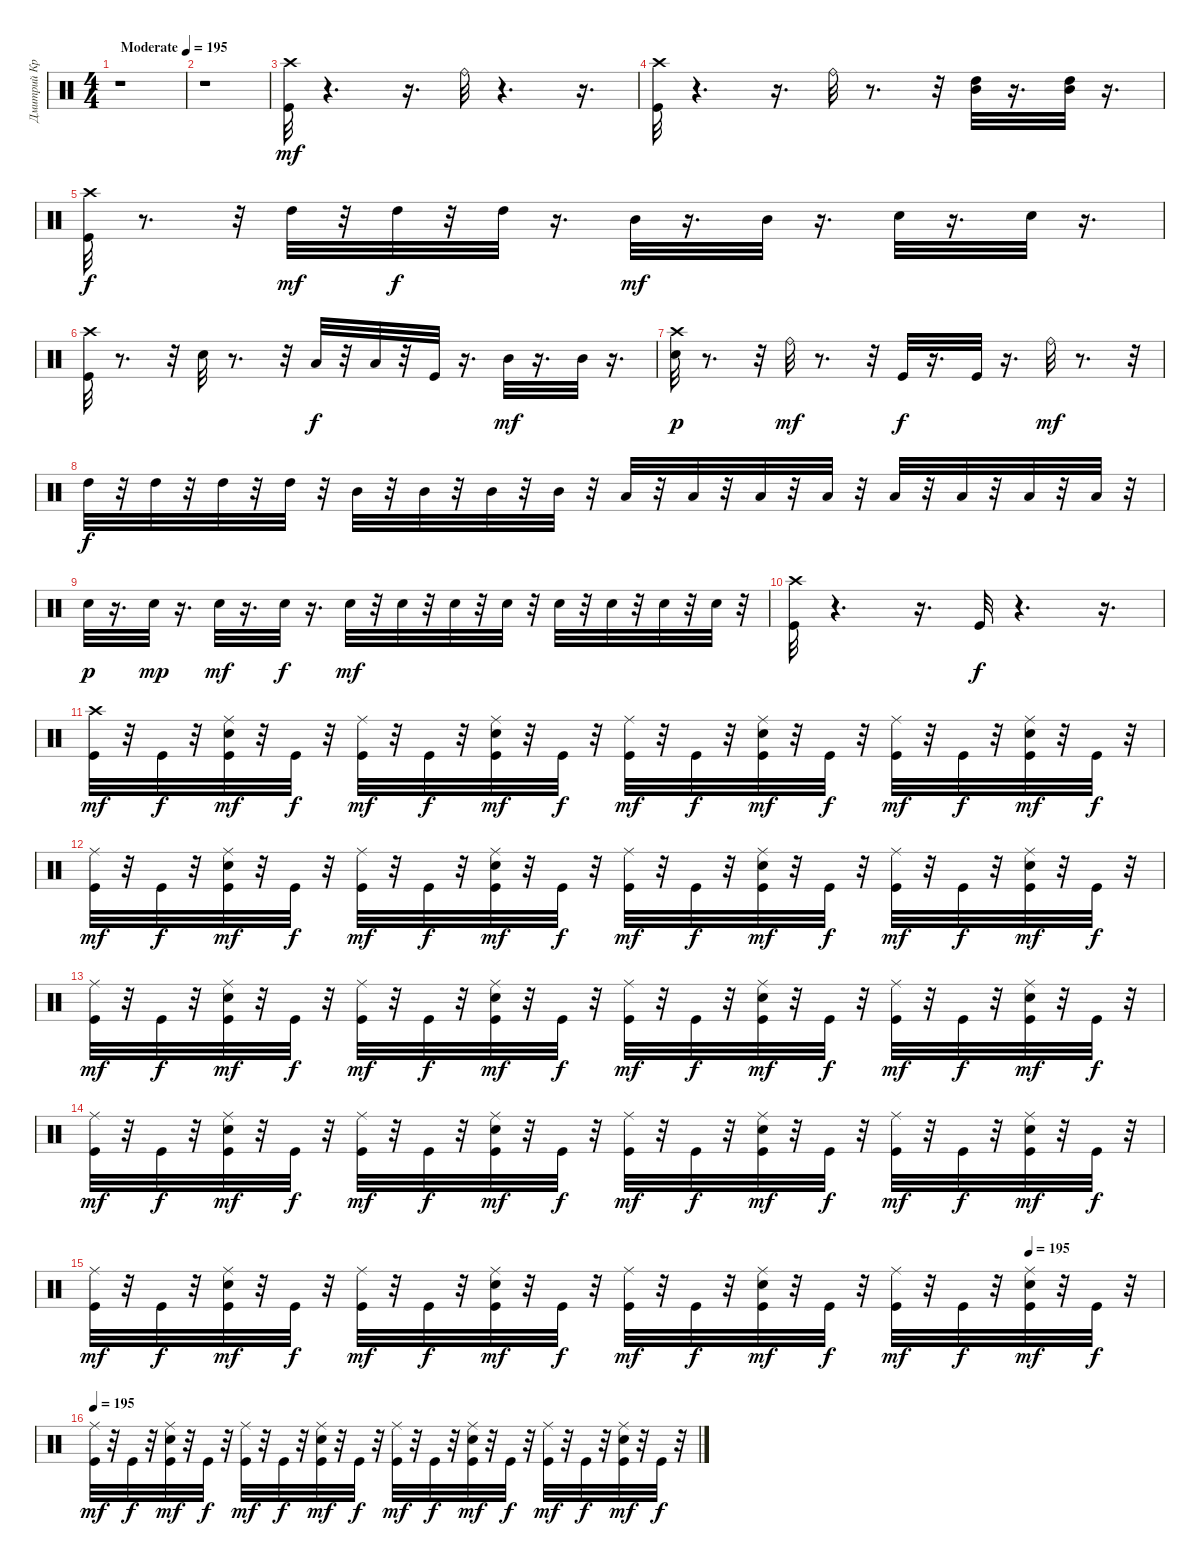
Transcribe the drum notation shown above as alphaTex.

\track ("Дмитрий Кривенков" "Дмитрий Кр") {instrument percussion}
\staff {score}
\articulation defaults
\ts (4 4)
\tempo (195 "Moderate")
\clef neutral
\ks c
r.1{dy mf} |
r.1 |
("Kick (hit)" "Crash high (hit)").32 r.4{d} r.16{d} "Ride (bell)".32 r.4{d} r.16{d} |
("Kick (hit)" "Crash high (hit)").32 r.4{d} r.16{d} "Ride (bell)".32 r.8{d} r.32 ("Mid Tom (hit)" "High Tom (hit)").32 r.16{d} ("Mid Tom (hit)" "High Tom (hit)").32 r.16{d} |
("Crash high (hit)" "Kick (hit)").32{dy f} r.8{d} r.32 "High Tom (hit)".32{dy mf} r.32 "High Tom (hit)".32{dy f} r.32 "High Tom (hit)".32 r.16{d} "Mid Tom (hit)".32{dy mf} r.16{d} "Mid Tom (hit)".32 r.16{d} "Electric Snare (hit)".32 r.16{d} "Electric Snare (hit)".32 r.16{d} |
("Crash high (hit)" "Kick (hit)").32 r.8{d} r.32 "Electric Snare (hit)".32 r.8{d} r.32 "Low Tom (hit)".32{dy f} r.32 "Low Tom (hit)".32 r.32 "Kick (hit)".32 r.16{d} "Mid Tom (hit)".32{dy mf} r.16{d} "Mid Tom (hit)".32 r.16{d} |
("Crash high (hit)" "Electric Snare (hit)").32{dy p} r.8{d} r.32 "Ride (bell)".32{dy mf} r.8{d} r.32 "Kick (hit)".32{dy f} r.16{d} "Kick (hit)".32 r.16{d} "Ride (bell)".32{dy mf} r.8{d} r.32 |
"High Tom (hit)".32{dy f} r.32 "High Tom (hit)".32 r.32 "High Tom (hit)".32 r.32 "High Tom (hit)".32 r.32 "Mid Tom (hit)".32 r.32 "Mid Tom (hit)".32 r.32 "Mid Tom (hit)".32 r.32 "Mid Tom (hit)".32 r.32 "Low Tom (hit)".32 r.32 "Low Tom (hit)".32 r.32 "Low Tom (hit)".32 r.32 "Low Tom (hit)".32 r.32 "Low Floor Tom (hit)".32 r.32 "Low Floor Tom (hit)".32 r.32 "Low Floor Tom (hit)".32 r.32 "Low Floor Tom (hit)".32 r.32 |
"Electric Snare (hit)".32{dy p} r.16{d} "Electric Snare (hit)".32{dy mp} r.16{d} "Electric Snare (hit)".32{dy mf} r.16{d} "Electric Snare (hit)".32{dy f} r.16{d} "Electric Snare (hit)".32{dy mf} r.32 "Electric Snare (hit)".32 r.32 "Electric Snare (hit)".32 r.32 "Electric Snare (hit)".32 r.32 "Electric Snare (hit)".32 r.32 "Electric Snare (hit)".32 r.32 "Electric Snare (hit)".32 r.32 "Electric Snare (hit)".32 r.32 |
("Crash high (hit)" "Kick (hit)").32 r.4{d} r.16{d} "Kick (hit)".32{dy f} r.4{d} r.16{d} |
("Crash high (hit)" "Kick (hit)").32{dy mf} r.32 "Kick (hit)".32{dy f} r.32 ("Electric Snare (hit)" "Ride (middle)" "Kick (hit)").32{dy mf} r.32 "Kick (hit)".32{dy f} r.32 ("Ride (middle)" "Kick (hit)").32{dy mf} r.32 "Kick (hit)".32{dy f} r.32 ("Ride (middle)" "Kick (hit)" "Electric Snare (hit)").32{dy mf} r.32 "Kick (hit)".32{dy f} r.32 ("Ride (middle)" "Kick (hit)").32{dy mf} r.32 "Kick (hit)".32{dy f} r.32 ("Ride (middle)" "Kick (hit)" "Electric Snare (hit)").32{dy mf} r.32 "Kick (hit)".32{dy f} r.32 ("Ride (middle)" "Kick (hit)").32{dy mf} r.32 "Kick (hit)".32{dy f} r.32 ("Electric Snare (hit)" "Ride (middle)" "Kick (hit)").32{dy mf} r.32 "Kick (hit)".32{dy f} r.32 |
("Ride (middle)" "Kick (hit)").32{dy mf} r.32 "Kick (hit)".32{dy f} r.32 ("Electric Snare (hit)" "Ride (middle)" "Kick (hit)").32{dy mf} r.32 "Kick (hit)".32{dy f} r.32 ("Ride (middle)" "Kick (hit)").32{dy mf} r.32 "Kick (hit)".32{dy f} r.32 ("Ride (middle)" "Kick (hit)" "Electric Snare (hit)").32{dy mf} r.32 "Kick (hit)".32{dy f} r.32 ("Ride (middle)" "Kick (hit)").32{dy mf} r.32 "Kick (hit)".32{dy f} r.32 ("Ride (middle)" "Kick (hit)" "Electric Snare (hit)").32{dy mf} r.32 "Kick (hit)".32{dy f} r.32 ("Ride (middle)" "Kick (hit)").32{dy mf} r.32 "Kick (hit)".32{dy f} r.32 ("Electric Snare (hit)" "Ride (middle)" "Kick (hit)").32{dy mf} r.32 "Kick (hit)".32{dy f} r.32 |
("Ride (middle)" "Kick (hit)").32{dy mf} r.32 "Kick (hit)".32{dy f} r.32 ("Electric Snare (hit)" "Ride (middle)" "Kick (hit)").32{dy mf} r.32 "Kick (hit)".32{dy f} r.32 ("Ride (middle)" "Kick (hit)").32{dy mf} r.32 "Kick (hit)".32{dy f} r.32 ("Ride (middle)" "Kick (hit)" "Electric Snare (hit)").32{dy mf} r.32 "Kick (hit)".32{dy f} r.32 ("Ride (middle)" "Kick (hit)").32{dy mf} r.32 "Kick (hit)".32{dy f} r.32 ("Ride (middle)" "Kick (hit)" "Electric Snare (hit)").32{dy mf} r.32 "Kick (hit)".32{dy f} r.32 ("Ride (middle)" "Kick (hit)").32{dy mf} r.32 "Kick (hit)".32{dy f} r.32 ("Electric Snare (hit)" "Ride (middle)" "Kick (hit)").32{dy mf} r.32 "Kick (hit)".32{dy f} r.32 |
("Ride (middle)" "Kick (hit)").32{dy mf} r.32 "Kick (hit)".32{dy f} r.32 ("Electric Snare (hit)" "Ride (middle)" "Kick (hit)").32{dy mf} r.32 "Kick (hit)".32{dy f} r.32 ("Ride (middle)" "Kick (hit)").32{dy mf} r.32 "Kick (hit)".32{dy f} r.32 ("Ride (middle)" "Kick (hit)" "Electric Snare (hit)").32{dy mf} r.32 "Kick (hit)".32{dy f} r.32 ("Ride (middle)" "Kick (hit)").32{dy mf} r.32 "Kick (hit)".32{dy f} r.32 ("Ride (middle)" "Kick (hit)" "Electric Snare (hit)").32{dy mf} r.32 "Kick (hit)".32{dy f} r.32 ("Ride (middle)" "Kick (hit)").32{dy mf} r.32 "Kick (hit)".32{dy f} r.32 ("Electric Snare (hit)" "Ride (middle)" "Kick (hit)").32{dy mf} r.32 "Kick (hit)".32{dy f} r.32 |
\tempo (195 0.875)
("Ride (middle)" "Kick (hit)").32{dy mf} r.32 "Kick (hit)".32{dy f} r.32 ("Electric Snare (hit)" "Ride (middle)" "Kick (hit)").32{dy mf} r.32 "Kick (hit)".32{dy f} r.32 ("Ride (middle)" "Kick (hit)").32{dy mf} r.32 "Kick (hit)".32{dy f} r.32 ("Ride (middle)" "Kick (hit)" "Electric Snare (hit)").32{dy mf} r.32 "Kick (hit)".32{dy f} r.32 ("Ride (middle)" "Kick (hit)").32{dy mf} r.32 "Kick (hit)".32{dy f} r.32 ("Ride (middle)" "Kick (hit)" "Electric Snare (hit)").32{dy mf} r.32 "Kick (hit)".32{dy f} r.32 ("Ride (middle)" "Kick (hit)").32{dy mf} r.32 "Kick (hit)".32{dy f} r.32 ("Electric Snare (hit)" "Ride (middle)" "Kick (hit)").32{dy mf} r.32 "Kick (hit)".32{dy f} r.32 |
\tempo 195
("Ride (middle)" "Kick (hit)").32{dy mf} r.32 "Kick (hit)".32{dy f} r.32 ("Electric Snare (hit)" "Ride (middle)" "Kick (hit)").32{dy mf} r.32 "Kick (hit)".32{dy f} r.32 ("Ride (middle)" "Kick (hit)").32{dy mf} r.32 "Kick (hit)".32{dy f} r.32 ("Ride (middle)" "Kick (hit)" "Electric Snare (hit)").32{dy mf} r.32 "Kick (hit)".32{dy f} r.32 ("Ride (middle)" "Kick (hit)").32{dy mf} r.32 "Kick (hit)".32{dy f} r.32 ("Ride (middle)" "Kick (hit)" "Electric Snare (hit)").32{dy mf} r.32 "Kick (hit)".32{dy f} r.32 ("Ride (middle)" "Kick (hit)").32{dy mf} r.32 "Kick (hit)".32{dy f} r.32 ("Electric Snare (hit)" "Ride (middle)" "Kick (hit)").32{dy mf} r.32 "Kick (hit)".32{dy f} r.32
